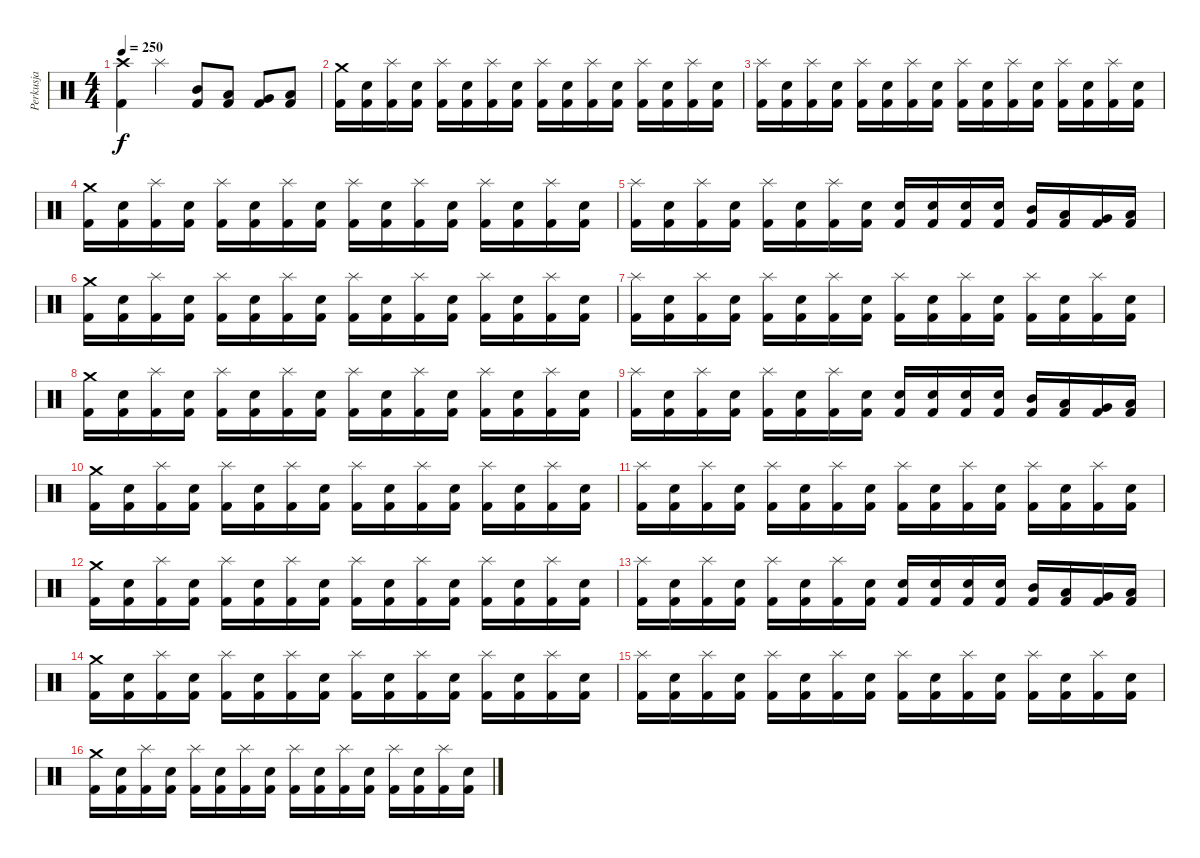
\track ("Perkusja" "Perkusja") {instrument percussion}
\staff {score}
\articulation defaults
\ts (4 4)
\tempo 250
\clef neutral
\ks c
("Crash high (hit)" "Kick (hit) 2").4{dy f} "Splash (hit)".4 ("Mid Tom (hit)" "Kick (hit) 2").8 ("Low Tom (hit)" "Kick (hit) 2").8 ("Very Low Tom (hit)" "Kick (hit) 2").8 ("Low Floor Tom (hit)" "Kick (hit) 2").8 |
("Crash medium (hit)" "Kick (hit) 2").16 ("Snare (hit) 2" "Kick (hit) 2").16 ("Splash (hit)" "Kick (hit) 2").16 ("Snare (hit) 2" "Kick (hit) 2").16 ("Splash (hit)" "Kick (hit) 2").16 ("Snare (hit) 2" "Kick (hit) 2").16 ("Splash (hit)" "Kick (hit) 2").16 ("Snare (hit) 2" "Kick (hit) 2").16 ("Splash (hit)" "Kick (hit) 2").16 ("Snare (hit) 2" "Kick (hit) 2").16 ("Splash (hit)" "Kick (hit) 2").16 ("Snare (hit) 2" "Kick (hit) 2").16 ("Splash (hit)" "Kick (hit) 2").16 ("Snare (hit) 2" "Kick (hit) 2").16 ("Splash (hit)" "Kick (hit) 2").16 ("Snare (hit) 2" "Kick (hit) 2").16 |
("Splash (hit)" "Kick (hit) 2").16 ("Snare (hit) 2" "Kick (hit) 2").16 ("Splash (hit)" "Kick (hit) 2").16 ("Snare (hit) 2" "Kick (hit) 2").16 ("Splash (hit)" "Kick (hit) 2").16 ("Snare (hit) 2" "Kick (hit) 2").16 ("Splash (hit)" "Kick (hit) 2").16 ("Snare (hit) 2" "Kick (hit) 2").16 ("Splash (hit)" "Kick (hit) 2").16 ("Snare (hit) 2" "Kick (hit) 2").16 ("Splash (hit)" "Kick (hit) 2").16 ("Snare (hit) 2" "Kick (hit) 2").16 ("Splash (hit)" "Kick (hit) 2").16 ("Snare (hit) 2" "Kick (hit) 2").16 ("Splash (hit)" "Kick (hit) 2").16 ("Snare (hit) 2" "Kick (hit) 2").16 |
("Crash medium (hit)" "Kick (hit) 2").16 ("Snare (hit) 2" "Kick (hit) 2").16 ("Splash (hit)" "Kick (hit) 2").16 ("Snare (hit) 2" "Kick (hit) 2").16 ("Splash (hit)" "Kick (hit) 2").16 ("Snare (hit) 2" "Kick (hit) 2").16 ("Splash (hit)" "Kick (hit) 2").16 ("Snare (hit) 2" "Kick (hit) 2").16 ("Splash (hit)" "Kick (hit) 2").16 ("Snare (hit) 2" "Kick (hit) 2").16 ("Splash (hit)" "Kick (hit) 2").16 ("Snare (hit) 2" "Kick (hit) 2").16 ("Splash (hit)" "Kick (hit) 2").16 ("Snare (hit) 2" "Kick (hit) 2").16 ("Splash (hit)" "Kick (hit) 2").16 ("Snare (hit) 2" "Kick (hit) 2").16 |
("Splash (hit)" "Kick (hit) 2").16 ("Snare (hit) 2" "Kick (hit) 2").16 ("Splash (hit)" "Kick (hit) 2").16 ("Snare (hit) 2" "Kick (hit) 2").16 ("Splash (hit)" "Kick (hit) 2").16 ("Snare (hit) 2" "Kick (hit) 2").16 ("Splash (hit)" "Kick (hit) 2").16 ("Snare (hit) 2" "Kick (hit) 2").16 ("Electric Snare (hit)" "Kick (hit) 2").16 ("Electric Snare (hit)" "Kick (hit) 2").16 ("Electric Snare (hit)" "Kick (hit) 2").16 ("Electric Snare (hit)" "Kick (hit) 2").16 ("Mid Tom (hit)" "Kick (hit) 2").16 ("Low Tom (hit)" "Kick (hit) 2").16 ("Very Low Tom (hit)" "Kick (hit) 2").16 ("Low Floor Tom (hit)" "Kick (hit) 2").16 |
("Crash medium (hit)" "Kick (hit) 2").16 ("Snare (hit) 2" "Kick (hit) 2").16 ("Splash (hit)" "Kick (hit) 2").16 ("Snare (hit) 2" "Kick (hit) 2").16 ("Splash (hit)" "Kick (hit) 2").16 ("Snare (hit) 2" "Kick (hit) 2").16 ("Splash (hit)" "Kick (hit) 2").16 ("Snare (hit) 2" "Kick (hit) 2").16 ("Splash (hit)" "Kick (hit) 2").16 ("Snare (hit) 2" "Kick (hit) 2").16 ("Splash (hit)" "Kick (hit) 2").16 ("Snare (hit) 2" "Kick (hit) 2").16 ("Splash (hit)" "Kick (hit) 2").16 ("Snare (hit) 2" "Kick (hit) 2").16 ("Splash (hit)" "Kick (hit) 2").16 ("Snare (hit) 2" "Kick (hit) 2").16 |
("Splash (hit)" "Kick (hit) 2").16 ("Snare (hit) 2" "Kick (hit) 2").16 ("Splash (hit)" "Kick (hit) 2").16 ("Snare (hit) 2" "Kick (hit) 2").16 ("Splash (hit)" "Kick (hit) 2").16 ("Snare (hit) 2" "Kick (hit) 2").16 ("Splash (hit)" "Kick (hit) 2").16 ("Snare (hit) 2" "Kick (hit) 2").16 ("Splash (hit)" "Kick (hit) 2").16 ("Snare (hit) 2" "Kick (hit) 2").16 ("Splash (hit)" "Kick (hit) 2").16 ("Snare (hit) 2" "Kick (hit) 2").16 ("Splash (hit)" "Kick (hit) 2").16 ("Snare (hit) 2" "Kick (hit) 2").16 ("Splash (hit)" "Kick (hit) 2").16 ("Snare (hit) 2" "Kick (hit) 2").16 |
("Crash medium (hit)" "Kick (hit) 2").16 ("Snare (hit) 2" "Kick (hit) 2").16 ("Splash (hit)" "Kick (hit) 2").16 ("Snare (hit) 2" "Kick (hit) 2").16 ("Splash (hit)" "Kick (hit) 2").16 ("Snare (hit) 2" "Kick (hit) 2").16 ("Splash (hit)" "Kick (hit) 2").16 ("Snare (hit) 2" "Kick (hit) 2").16 ("Splash (hit)" "Kick (hit) 2").16 ("Snare (hit) 2" "Kick (hit) 2").16 ("Splash (hit)" "Kick (hit) 2").16 ("Snare (hit) 2" "Kick (hit) 2").16 ("Splash (hit)" "Kick (hit) 2").16 ("Snare (hit) 2" "Kick (hit) 2").16 ("Splash (hit)" "Kick (hit) 2").16 ("Snare (hit) 2" "Kick (hit) 2").16 |
("Splash (hit)" "Kick (hit) 2").16 ("Snare (hit) 2" "Kick (hit) 2").16 ("Splash (hit)" "Kick (hit) 2").16 ("Snare (hit) 2" "Kick (hit) 2").16 ("Splash (hit)" "Kick (hit) 2").16 ("Snare (hit) 2" "Kick (hit) 2").16 ("Splash (hit)" "Kick (hit) 2").16 ("Snare (hit) 2" "Kick (hit) 2").16 ("Electric Snare (hit)" "Kick (hit) 2").16 ("Electric Snare (hit)" "Kick (hit) 2").16 ("Electric Snare (hit)" "Kick (hit) 2").16 ("Electric Snare (hit)" "Kick (hit) 2").16 ("Mid Tom (hit)" "Kick (hit) 2").16 ("Low Tom (hit)" "Kick (hit) 2").16 ("Very Low Tom (hit)" "Kick (hit) 2").16 ("Low Floor Tom (hit)" "Kick (hit) 2").16 |
("Crash medium (hit)" "Kick (hit) 2").16 ("Snare (hit) 2" "Kick (hit) 2").16 ("Splash (hit)" "Kick (hit) 2").16 ("Snare (hit) 2" "Kick (hit) 2").16 ("Splash (hit)" "Kick (hit) 2").16 ("Snare (hit) 2" "Kick (hit) 2").16 ("Splash (hit)" "Kick (hit) 2").16 ("Snare (hit) 2" "Kick (hit) 2").16 ("Splash (hit)" "Kick (hit) 2").16 ("Snare (hit) 2" "Kick (hit) 2").16 ("Splash (hit)" "Kick (hit) 2").16 ("Snare (hit) 2" "Kick (hit) 2").16 ("Splash (hit)" "Kick (hit) 2").16 ("Snare (hit) 2" "Kick (hit) 2").16 ("Splash (hit)" "Kick (hit) 2").16 ("Snare (hit) 2" "Kick (hit) 2").16 |
("Splash (hit)" "Kick (hit) 2").16 ("Snare (hit) 2" "Kick (hit) 2").16 ("Splash (hit)" "Kick (hit) 2").16 ("Snare (hit) 2" "Kick (hit) 2").16 ("Splash (hit)" "Kick (hit) 2").16 ("Snare (hit) 2" "Kick (hit) 2").16 ("Splash (hit)" "Kick (hit) 2").16 ("Snare (hit) 2" "Kick (hit) 2").16 ("Splash (hit)" "Kick (hit) 2").16 ("Snare (hit) 2" "Kick (hit) 2").16 ("Splash (hit)" "Kick (hit) 2").16 ("Snare (hit) 2" "Kick (hit) 2").16 ("Splash (hit)" "Kick (hit) 2").16 ("Snare (hit) 2" "Kick (hit) 2").16 ("Splash (hit)" "Kick (hit) 2").16 ("Snare (hit) 2" "Kick (hit) 2").16 |
("Crash medium (hit)" "Kick (hit) 2").16 ("Snare (hit) 2" "Kick (hit) 2").16 ("Splash (hit)" "Kick (hit) 2").16 ("Snare (hit) 2" "Kick (hit) 2").16 ("Splash (hit)" "Kick (hit) 2").16 ("Snare (hit) 2" "Kick (hit) 2").16 ("Splash (hit)" "Kick (hit) 2").16 ("Snare (hit) 2" "Kick (hit) 2").16 ("Splash (hit)" "Kick (hit) 2").16 ("Snare (hit) 2" "Kick (hit) 2").16 ("Splash (hit)" "Kick (hit) 2").16 ("Snare (hit) 2" "Kick (hit) 2").16 ("Splash (hit)" "Kick (hit) 2").16 ("Snare (hit) 2" "Kick (hit) 2").16 ("Splash (hit)" "Kick (hit) 2").16 ("Snare (hit) 2" "Kick (hit) 2").16 |
("Splash (hit)" "Kick (hit) 2").16 ("Snare (hit) 2" "Kick (hit) 2").16 ("Splash (hit)" "Kick (hit) 2").16 ("Snare (hit) 2" "Kick (hit) 2").16 ("Splash (hit)" "Kick (hit) 2").16 ("Snare (hit) 2" "Kick (hit) 2").16 ("Splash (hit)" "Kick (hit) 2").16 ("Snare (hit) 2" "Kick (hit) 2").16 ("Electric Snare (hit)" "Kick (hit) 2").16 ("Electric Snare (hit)" "Kick (hit) 2").16 ("Electric Snare (hit)" "Kick (hit) 2").16 ("Electric Snare (hit)" "Kick (hit) 2").16 ("Mid Tom (hit)" "Kick (hit) 2").16 ("Low Tom (hit)" "Kick (hit) 2").16 ("Very Low Tom (hit)" "Kick (hit) 2").16 ("Low Floor Tom (hit)" "Kick (hit) 2").16 |
("Crash medium (hit)" "Kick (hit) 2").16 ("Snare (hit) 2" "Kick (hit) 2").16 ("Splash (hit)" "Kick (hit) 2").16 ("Snare (hit) 2" "Kick (hit) 2").16 ("Splash (hit)" "Kick (hit) 2").16 ("Snare (hit) 2" "Kick (hit) 2").16 ("Splash (hit)" "Kick (hit) 2").16 ("Snare (hit) 2" "Kick (hit) 2").16 ("Splash (hit)" "Kick (hit) 2").16 ("Snare (hit) 2" "Kick (hit) 2").16 ("Splash (hit)" "Kick (hit) 2").16 ("Snare (hit) 2" "Kick (hit) 2").16 ("Splash (hit)" "Kick (hit) 2").16 ("Snare (hit) 2" "Kick (hit) 2").16 ("Splash (hit)" "Kick (hit) 2").16 ("Snare (hit) 2" "Kick (hit) 2").16 |
("Splash (hit)" "Kick (hit) 2").16 ("Snare (hit) 2" "Kick (hit) 2").16 ("Splash (hit)" "Kick (hit) 2").16 ("Snare (hit) 2" "Kick (hit) 2").16 ("Splash (hit)" "Kick (hit) 2").16 ("Snare (hit) 2" "Kick (hit) 2").16 ("Splash (hit)" "Kick (hit) 2").16 ("Snare (hit) 2" "Kick (hit) 2").16 ("Splash (hit)" "Kick (hit) 2").16 ("Snare (hit) 2" "Kick (hit) 2").16 ("Splash (hit)" "Kick (hit) 2").16 ("Snare (hit) 2" "Kick (hit) 2").16 ("Splash (hit)" "Kick (hit) 2").16 ("Snare (hit) 2" "Kick (hit) 2").16 ("Splash (hit)" "Kick (hit) 2").16 ("Snare (hit) 2" "Kick (hit) 2").16 |
("Crash medium (hit)" "Kick (hit) 2").16 ("Snare (hit) 2" "Kick (hit) 2").16 ("Splash (hit)" "Kick (hit) 2").16 ("Snare (hit) 2" "Kick (hit) 2").16 ("Splash (hit)" "Kick (hit) 2").16 ("Snare (hit) 2" "Kick (hit) 2").16 ("Splash (hit)" "Kick (hit) 2").16 ("Snare (hit) 2" "Kick (hit) 2").16 ("Splash (hit)" "Kick (hit) 2").16 ("Snare (hit) 2" "Kick (hit) 2").16 ("Splash (hit)" "Kick (hit) 2").16 ("Snare (hit) 2" "Kick (hit) 2").16 ("Splash (hit)" "Kick (hit) 2").16 ("Snare (hit) 2" "Kick (hit) 2").16 ("Splash (hit)" "Kick (hit) 2").16 ("Snare (hit) 2" "Kick (hit) 2").16
